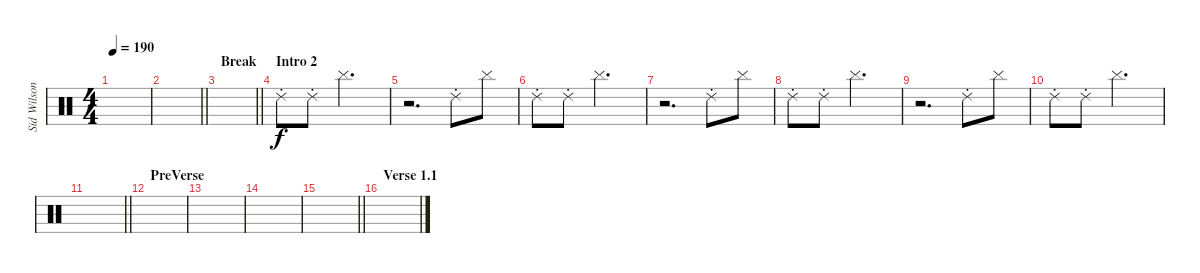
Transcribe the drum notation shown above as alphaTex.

\track ("Sid Wilson" "Sid Wilson") {instrument percussion}
\staff {score}
\articulation defaults
\ts (4 4)
\tempo 190
\clef neutral
\ks c
|
\barLineRight lightlight
|
\section ("" "Break")
\barLineRight lightlight
|
\section ("" "Intro 2")
"Ride (choke) 2".8 "Ride (choke) 2".8 "Cymbal (hit)".2{d} |
r.2{d} "Ride (choke) 2".8 "Cymbal (hit)".8 |
"Ride (choke) 2".8 "Ride (choke) 2".8 "Cymbal (hit)".2{d} |
r.2{d} "Ride (choke) 2".8 "Cymbal (hit)".8 |
"Ride (choke) 2".8 "Ride (choke) 2".8 "Cymbal (hit)".2{d} |
r.2{d} "Ride (choke) 2".8 "Cymbal (hit)".8 |
"Ride (choke) 2".8 "Ride (choke) 2".8 "Cymbal (hit)".2{d} |
\barLineRight lightlight
|
\section ("" "PreVerse")
|
|
|
\barLineRight lightlight
|
\section ("" "Verse 1.1")
